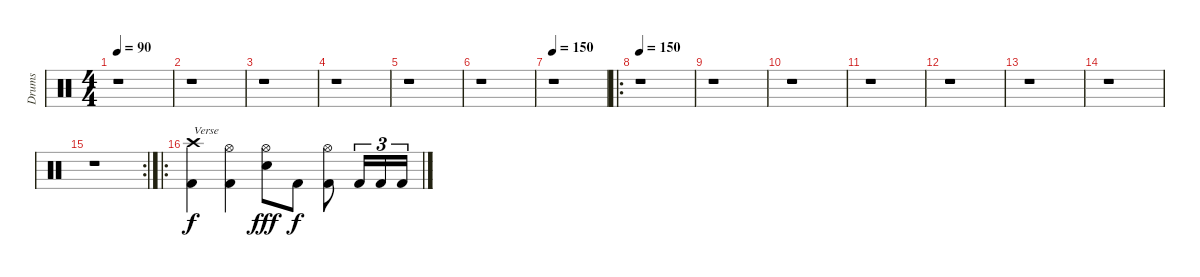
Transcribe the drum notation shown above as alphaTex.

\track ("Drums" "Drums") {instrument percussion}
\staff {score}
\articulation defaults
\ts (4 4)
\tempo 90
\clef neutral
\ks c
r.1{dy f} |
r.1 |
r.1 |
r.1 |
r.1 |
r.1 |
\tempo 150
r.1 |
\ro
\tempo 150
r.1 |
r.1 |
r.1 |
r.1 |
r.1 |
r.1 |
r.1 |
\rc 2
r.1 |
\ro
("Crash high (hit)" "Kick (hit) 2").4{txt "Verse"} ("Hi-Hat (open)" "Kick (hit) 2").4 ("Hi-Hat (open)" "Snare (hit) 2").8{dy fff} "Kick (hit) 2".8{dy f} ("Hi-Hat (open)" "Kick (hit) 2").8 "Kick (hit) 2".16{tu (3 2)} "Kick (hit) 2".16{tu (3 2)} "Kick (hit) 2".16{tu (3 2)}
